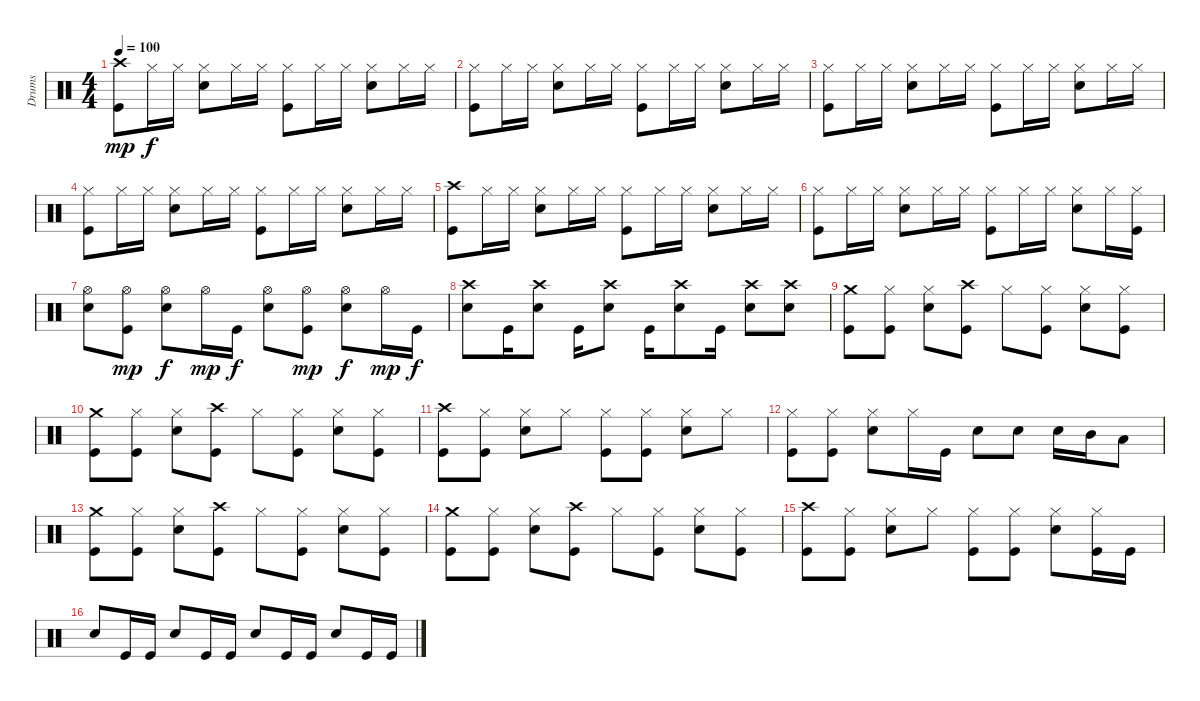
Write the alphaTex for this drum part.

\track ("Drums" "Drums") {instrument percussion}
\staff {score}
\articulation defaults
\ts (4 4)
\tempo 100
\clef neutral
\ks c
("Crash high (hit)" "Kick (hit)").8{dy mp} "Hi-Hat (closed)".16{dy f} "Hi-Hat (closed)".16 ("Hi-Hat (closed)" "Snare (hit) 2").8 "Hi-Hat (closed)".16 "Hi-Hat (closed)".16 ("Hi-Hat (closed)" "Kick (hit)").8 "Hi-Hat (closed)".16 "Hi-Hat (closed)".16 ("Hi-Hat (closed)" "Snare (hit) 2").8 "Hi-Hat (closed)".16 "Hi-Hat (closed)".16 |
("Hi-Hat (closed)" "Kick (hit)").8 "Hi-Hat (closed)".16 "Hi-Hat (closed)".16 ("Hi-Hat (closed)" "Snare (hit) 2").8 "Hi-Hat (closed)".16 "Hi-Hat (closed)".16 ("Hi-Hat (closed)" "Kick (hit)").8 "Hi-Hat (closed)".16 "Hi-Hat (closed)".16 ("Hi-Hat (closed)" "Snare (hit) 2").8 "Hi-Hat (closed)".16 "Hi-Hat (closed)".16 |
("Hi-Hat (closed)" "Kick (hit)").8 "Hi-Hat (closed)".16 "Hi-Hat (closed)".16 ("Hi-Hat (closed)" "Snare (hit) 2").8 "Hi-Hat (closed)".16 "Hi-Hat (closed)".16 ("Hi-Hat (closed)" "Kick (hit)").8 "Hi-Hat (closed)".16 "Hi-Hat (closed)".16 ("Hi-Hat (closed)" "Snare (hit) 2").8 "Hi-Hat (closed)".16 "Hi-Hat (closed)".16 |
("Hi-Hat (closed)" "Kick (hit)").8 "Hi-Hat (closed)".16 "Hi-Hat (closed)".16 ("Hi-Hat (closed)" "Snare (hit) 2").8 "Hi-Hat (closed)".16 "Hi-Hat (closed)".16 ("Hi-Hat (closed)" "Kick (hit)").8 "Hi-Hat (closed)".16 "Hi-Hat (closed)".16 ("Hi-Hat (closed)" "Snare (hit) 2").8 "Hi-Hat (closed)".16 "Hi-Hat (closed)".16 |
("Crash high (hit)" "Kick (hit)").8 "Hi-Hat (closed)".16 "Hi-Hat (closed)".16 ("Hi-Hat (closed)" "Snare (hit) 2").8 "Hi-Hat (closed)".16 "Hi-Hat (closed)".16 ("Hi-Hat (closed)" "Kick (hit)").8 "Hi-Hat (closed)".16 "Hi-Hat (closed)".16 ("Hi-Hat (closed)" "Snare (hit) 2").8 "Hi-Hat (closed)".16 "Hi-Hat (closed)".16 |
("Hi-Hat (closed)" "Kick (hit)").8 "Hi-Hat (closed)".16 "Hi-Hat (closed)".16 ("Hi-Hat (closed)" "Snare (hit) 2").8 "Hi-Hat (closed)".16 "Hi-Hat (closed)".16 ("Hi-Hat (closed)" "Kick (hit)").8 "Hi-Hat (closed)".16 "Hi-Hat (closed)".16 ("Hi-Hat (closed)" "Snare (hit) 2").8 "Hi-Hat (closed)".16 ("Hi-Hat (closed)" "Kick (hit)").16 |
("Hi-Hat (open)" "Snare (hit) 2").8 ("Hi-Hat (open)" "Kick (hit)").8{dy mp} ("Hi-Hat (open)" "Snare (hit) 2").8{dy f} "Hi-Hat (open)".16{dy mp} "Kick (hit)".16{dy f} ("Hi-Hat (open)" "Snare (hit) 2").8 ("Hi-Hat (open)" "Kick (hit)").8{dy mp} ("Hi-Hat (open)" "Snare (hit) 2").8{dy f} "Hi-Hat (open)".16{dy mp} "Kick (hit)".16{dy f} |
("Crash high (hit)" "Snare (hit) 2").8 "Kick (hit)".16 ("Crash high (hit)" "Snare (hit) 2").8 "Kick (hit)".16 ("Crash high (hit)" "Snare (hit) 2").8 "Kick (hit)".16 ("Crash high (hit)" "Snare (hit) 2").8 "Kick (hit)".16 ("Crash high (hit)" "Snare (hit) 2").8 ("Crash high (hit)" "Snare (hit) 2").8 |
("Crash medium (hit)" "Kick (hit)").8 ("Hi-Hat (closed)" "Kick (hit)").8 ("Hi-Hat (closed)" "Snare (hit) 2").8 ("Crash high (hit)" "Kick (hit)").8 "Hi-Hat (closed)".8 ("Hi-Hat (closed)" "Kick (hit)").8 ("Hi-Hat (closed)" "Snare (hit) 2").8 ("Hi-Hat (closed)" "Kick (hit)").8 |
("Crash medium (hit)" "Kick (hit)").8 ("Hi-Hat (closed)" "Kick (hit)").8 ("Hi-Hat (closed)" "Snare (hit) 2").8 ("Crash high (hit)" "Kick (hit)").8 "Hi-Hat (closed)".8 ("Hi-Hat (closed)" "Kick (hit)").8 ("Hi-Hat (closed)" "Snare (hit) 2").8 ("Hi-Hat (closed)" "Kick (hit)").8 |
("Crash high (hit)" "Kick (hit)").8 ("Hi-Hat (closed)" "Kick (hit)").8 ("Hi-Hat (closed)" "Snare (hit) 2").8 "Hi-Hat (closed)".8 ("Hi-Hat (closed)" "Kick (hit)").8 ("Hi-Hat (closed)" "Kick (hit)").8 ("Hi-Hat (closed)" "Snare (hit) 2").8 "Hi-Hat (closed)".8 |
("Hi-Hat (closed)" "Kick (hit)").8 ("Hi-Hat (closed)" "Kick (hit)").8 ("Hi-Hat (closed)" "Snare (hit) 2").8 "Hi-Hat (closed)".16 "Kick (hit)".16 "Snare (hit) 2".8 "Snare (hit) 2".8 "Snare (hit) 2".16 "Mid Tom (hit)".16 "Low Tom (hit)".8 |
("Crash medium (hit)" "Kick (hit)").8 ("Hi-Hat (closed)" "Kick (hit)").8 ("Hi-Hat (closed)" "Snare (hit) 2").8 ("Crash high (hit)" "Kick (hit)").8 "Hi-Hat (closed)".8 ("Hi-Hat (closed)" "Kick (hit)").8 ("Hi-Hat (closed)" "Snare (hit) 2").8 ("Hi-Hat (closed)" "Kick (hit)").8 |
("Crash medium (hit)" "Kick (hit)").8 ("Hi-Hat (closed)" "Kick (hit)").8 ("Hi-Hat (closed)" "Snare (hit) 2").8 ("Crash high (hit)" "Kick (hit)").8 "Hi-Hat (closed)".8 ("Hi-Hat (closed)" "Kick (hit)").8 ("Hi-Hat (closed)" "Snare (hit) 2").8 ("Hi-Hat (closed)" "Kick (hit)").8 |
("Crash high (hit)" "Kick (hit)").8 ("Hi-Hat (closed)" "Kick (hit)").8 ("Hi-Hat (closed)" "Snare (hit) 2").8 "Hi-Hat (closed)".8 ("Hi-Hat (closed)" "Kick (hit)").8 ("Hi-Hat (closed)" "Kick (hit)").8 ("Hi-Hat (closed)" "Snare (hit) 2").8 ("Hi-Hat (closed)" "Kick (hit)").16 "Kick (hit)".16 |
"Snare (hit) 2".8 "Kick (hit)".16 "Kick (hit)".16 "Snare (hit) 2".8 "Kick (hit)".16 "Kick (hit)".16 "Snare (hit) 2".8 "Kick (hit)".16 "Kick (hit)".16 "Snare (hit) 2".8 "Kick (hit)".16 "Kick (hit)".16
